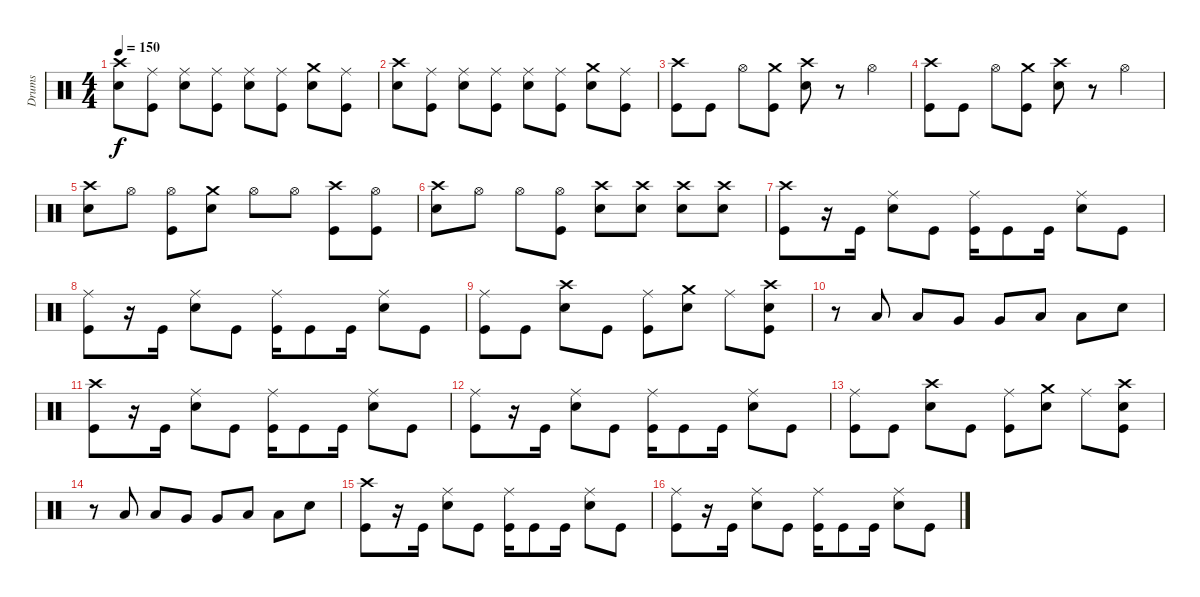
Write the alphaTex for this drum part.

\track ("Drums" "Drums") {instrument percussion}
\staff {score}
\articulation defaults
\ts (4 4)
\tempo 150
\clef neutral
\ks c
("Electric Snare (hit)" "Crash high (hit)").8{dy f} ("Ride (middle)" "Kick (hit)").8 ("Electric Snare (hit)" "Ride (middle)").8 ("Ride (middle)" "Kick (hit)").8 ("Ride (middle)" "Electric Snare (hit)").8 ("Ride (middle)" "Kick (hit)").8 ("Crash medium (hit)" "Electric Snare (hit)").8 ("Kick (hit)" "Ride (middle)").8 |
("Crash high (hit)" "Electric Snare (hit)").8 ("Kick (hit)" "Ride (middle)").8 ("Ride (middle)" "Electric Snare (hit)").8 ("Ride (middle)" "Kick (hit)").8 ("Electric Snare (hit)" "Ride (middle)").8 ("Ride (middle)" "Kick (hit)").8 ("Electric Snare (hit)" "Crash medium (hit)").8 ("Kick (hit)" "Ride (middle)").8 |
("Kick (hit)" "Crash high (hit)").8 "Kick (hit)".8 "Hi-Hat (open)".8 ("Crash medium (hit)" "Kick (hit)").8 ("Crash high (hit)" "Electric Snare (hit)").8 r.8 "Hi-Hat (open)".4 |
("Crash high (hit)" "Kick (hit)").8 "Kick (hit)".8 "Hi-Hat (open)".8 ("Kick (hit)" "Crash medium (hit)").8 ("Crash high (hit)" "Electric Snare (hit)").8 r.8 "Hi-Hat (open)".4 |
("Crash high (hit)" "Electric Snare (hit)").8 "Hi-Hat (open)".8 ("Kick (hit)" "Hi-Hat (open)").8 ("Crash medium (hit)" "Electric Snare (hit)").8 "Hi-Hat (open)".8 "Hi-Hat (open)".8 ("Kick (hit)" "Crash high (hit)").8 ("Hi-Hat (open)" "Kick (hit)").8 |
("Electric Snare (hit)" "Crash high (hit)").8 "Hi-Hat (open)".8 "Hi-Hat (open)".8 ("Hi-Hat (open)" "Kick (hit)").8 ("Crash high (hit)" "Electric Snare (hit)").8 ("Crash high (hit)" "Electric Snare (hit)").8 ("Electric Snare (hit)" "Crash high (hit)").8 ("Electric Snare (hit)" "Crash high (hit)").8 |
("Crash high (hit)" "Kick (hit)").8 r.16 "Kick (hit)".16 ("Ride (middle)" "Electric Snare (hit)").8 "Kick (hit)".8 ("Ride (middle)" "Kick (hit)").16 "Kick (hit)".8 "Kick (hit)".16 ("Ride (middle)" "Electric Snare (hit)").8 "Kick (hit)".8 |
("Kick (hit)" "Ride (middle)").8 r.16 "Kick (hit)".16 ("Ride (middle)" "Electric Snare (hit)").8 "Kick (hit)".8 ("Ride (middle)" "Kick (hit)").16 "Kick (hit)".8 "Kick (hit)".16 ("Ride (middle)" "Electric Snare (hit)").8 "Kick (hit)".8 |
("Ride (middle)" "Kick (hit)").8 "Kick (hit)".8 ("Crash high (hit)" "Electric Snare (hit)").8 "Kick (hit)".8 ("Ride (middle)" "Kick (hit)").8 ("Electric Snare (hit)" "Crash medium (hit)").8 "Ride (middle)".8 ("Crash high (hit)" "Electric Snare (hit)" "Kick (hit)").8 |
r.8 "Low Tom (hit)".8 "Low Tom (hit)".8 "Very Low Tom (hit)".8 "Very Low Tom (hit)".8 "Low Floor Tom (hit)".8 "Low Floor Tom (hit)".8 "Electric Snare (hit)".8 |
("Crash high (hit)" "Kick (hit)").8 r.16 "Kick (hit)".16 ("Ride (middle)" "Electric Snare (hit)").8 "Kick (hit)".8 ("Ride (middle)" "Kick (hit)").16 "Kick (hit)".8 "Kick (hit)".16 ("Ride (middle)" "Electric Snare (hit)").8 "Kick (hit)".8 |
("Kick (hit)" "Ride (middle)").8 r.16 "Kick (hit)".16 ("Ride (middle)" "Electric Snare (hit)").8 "Kick (hit)".8 ("Ride (middle)" "Kick (hit)").16 "Kick (hit)".8 "Kick (hit)".16 ("Ride (middle)" "Electric Snare (hit)").8 "Kick (hit)".8 |
("Ride (middle)" "Kick (hit)").8 "Kick (hit)".8 ("Crash high (hit)" "Electric Snare (hit)").8 "Kick (hit)".8 ("Ride (middle)" "Kick (hit)").8 ("Electric Snare (hit)" "Crash medium (hit)").8 "Ride (middle)".8 ("Crash high (hit)" "Electric Snare (hit)" "Kick (hit)").8 |
r.8 "Low Tom (hit)".8 "Low Tom (hit)".8 "Very Low Tom (hit)".8 "Very Low Tom (hit)".8 "Low Floor Tom (hit)".8 "Low Floor Tom (hit)".8 "Electric Snare (hit)".8 |
("Crash high (hit)" "Kick (hit)").8 r.16 "Kick (hit)".16 ("Ride (middle)" "Electric Snare (hit)").8 "Kick (hit)".8 ("Ride (middle)" "Kick (hit)").16 "Kick (hit)".8 "Kick (hit)".16 ("Ride (middle)" "Electric Snare (hit)").8 "Kick (hit)".8 |
("Kick (hit)" "Ride (middle)").8 r.16 "Kick (hit)".16 ("Ride (middle)" "Electric Snare (hit)").8 "Kick (hit)".8 ("Ride (middle)" "Kick (hit)").16 "Kick (hit)".8 "Kick (hit)".16 ("Ride (middle)" "Electric Snare (hit)").8 "Kick (hit)".8
